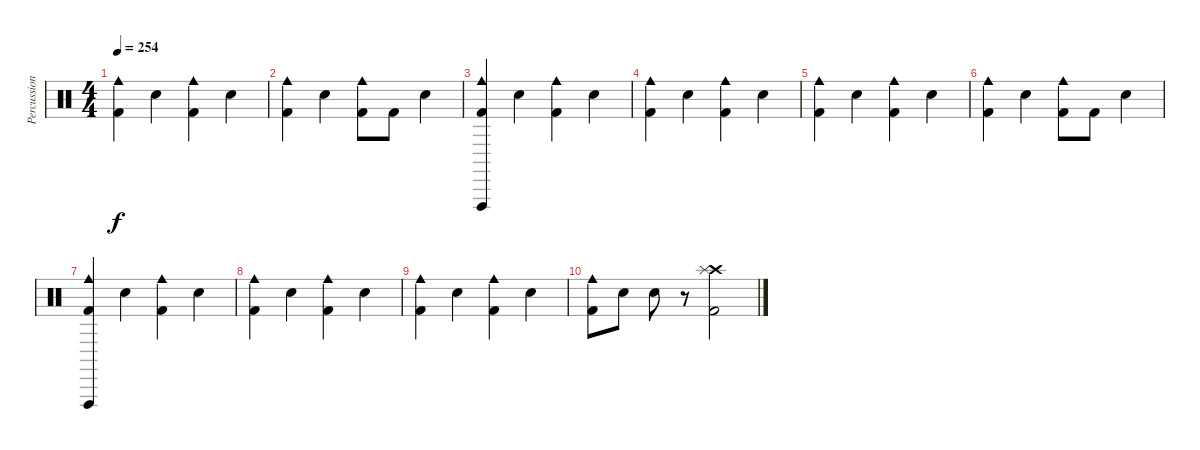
\track ("Percussions" "Percussion") {instrument percussion}
\staff {score}
\articulation defaults
\ts (4 4)
\tempo 254
\clef neutral
\ks c
("Cowbell medium (hit)" "Kick (hit) 2").4{dy f} "Electric Snare (hit)".4 ("Cowbell medium (hit)" "Kick (hit) 2").4 "Electric Snare (hit)".4 |
("Cowbell medium (hit)" "Kick (hit) 2").4 "Electric Snare (hit)".4 ("Cowbell medium (hit)" "Kick (hit) 2").8 "Kick (hit) 2".8 "Electric Snare (hit)".4 |
("Cowbell medium (hit)" "Vibraslap (hit)" "Kick (hit) 2").4 "Electric Snare (hit)".4 ("Cowbell medium (hit)" "Kick (hit) 2").4 "Electric Snare (hit)".4 |
("Cowbell medium (hit)" "Kick (hit) 2").4 "Electric Snare (hit)".4 ("Cowbell medium (hit)" "Kick (hit) 2").4 "Electric Snare (hit)".4 |
("Cowbell medium (hit)" "Kick (hit) 2").4 "Electric Snare (hit)".4 ("Cowbell medium (hit)" "Kick (hit) 2").4 "Electric Snare (hit)".4 |
("Cowbell medium (hit)" "Kick (hit) 2").4 "Electric Snare (hit)".4 ("Cowbell medium (hit)" "Kick (hit) 2").8 "Kick (hit) 2".8 "Electric Snare (hit)".4 |
("Cowbell medium (hit)" "Vibraslap (hit)" "Kick (hit) 2").4 "Electric Snare (hit)".4 ("Cowbell medium (hit)" "Kick (hit) 2").4 "Electric Snare (hit)".4 |
("Cowbell medium (hit)" "Kick (hit) 2").4 "Electric Snare (hit)".4 ("Cowbell medium (hit)" "Kick (hit) 2").4 "Electric Snare (hit)".4 |
("Cowbell medium (hit)" "Kick (hit) 2").4 "Electric Snare (hit)".4 ("Cowbell medium (hit)" "Kick (hit) 2").4 "Electric Snare (hit)".4 |
("Cowbell medium (hit)" "Kick (hit) 2").8 "Electric Snare (hit)".8 "Electric Snare (hit)".8 r.8 ("Crash high (hit)" "Splash (hit)" "Kick (hit) 2").2
